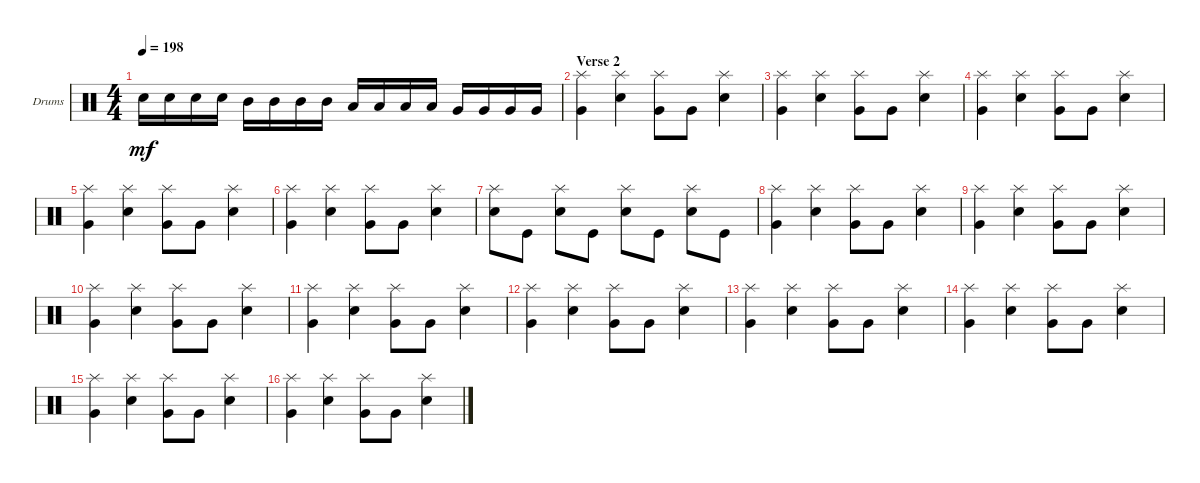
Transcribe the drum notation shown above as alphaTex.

\bracketExtendMode groupsimilarinstruments
\firstSystemTrackNameOrientation horizontal
\otherSystemsTrackNameOrientation horizontal
\track ("Drumkit" "Drums") {instrument percussion}
\staff {score}
\articulation defaults
\ts (4 4)
\tempo 198
\clef neutral
\ks c "Snare (hit) 2".16{dy mf} "Snare (hit) 2".16 "Snare (hit) 2".16 "Snare (hit) 2".16 "Mid Tom (hit)".16 "Mid Tom (hit)".16 "Mid Tom (hit)".16 "Mid Tom (hit)".16 "Low Tom (hit)".16 "Low Tom (hit)".16 "Low Tom (hit)".16 "Low Tom (hit)".16 "Very Low Tom (hit)".16 "Very Low Tom (hit)".16 "Very Low Tom (hit)".16 "Very Low Tom (hit)".16
|
\section ("" "Verse 2")
("Very Low Tom (hit)" "Splash (hit)").4 ("Splash (hit)" "Snare (hit) 2").4 ("Very Low Tom (hit)" "Splash (hit)").8 "Very Low Tom (hit)".8 ("Splash (hit)" "Snare (hit) 2").4 |
("Very Low Tom (hit)" "Splash (hit)").4 ("Splash (hit)" "Snare (hit) 2").4 ("Very Low Tom (hit)" "Splash (hit)").8 "Very Low Tom (hit)".8 ("Splash (hit)" "Snare (hit) 2").4 |
("Very Low Tom (hit)" "Splash (hit)").4 ("Splash (hit)" "Snare (hit) 2").4 ("Very Low Tom (hit)" "Splash (hit)").8 "Very Low Tom (hit)".8 ("Splash (hit)" "Snare (hit) 2").4 |
("Very Low Tom (hit)" "Splash (hit)").4 ("Splash (hit)" "Snare (hit) 2").4 ("Very Low Tom (hit)" "Splash (hit)").8 "Very Low Tom (hit)".8 ("Splash (hit)" "Snare (hit) 2").4 |
("Very Low Tom (hit)" "Splash (hit)").4 ("Splash (hit)" "Snare (hit) 2").4 ("Very Low Tom (hit)" "Splash (hit)").8 "Very Low Tom (hit)".8 ("Splash (hit)" "Snare (hit) 2").4 |
("Snare (hit) 2" "Splash (hit)").8 "Kick (hit)".8 ("Snare (hit) 2" "Splash (hit)").8 "Kick (hit)".8 ("Snare (hit) 2" "Splash (hit)").8 "Kick (hit)".8 ("Snare (hit) 2" "Splash (hit)").8 "Kick (hit)".8 |
("Very Low Tom (hit)" "Splash (hit)").4 ("Splash (hit)" "Snare (hit) 2").4 ("Very Low Tom (hit)" "Splash (hit)").8 "Very Low Tom (hit)".8 ("Splash (hit)" "Snare (hit) 2").4 |
("Very Low Tom (hit)" "Splash (hit)").4 ("Splash (hit)" "Snare (hit) 2").4 ("Very Low Tom (hit)" "Splash (hit)").8 "Very Low Tom (hit)".8 ("Splash (hit)" "Snare (hit) 2").4 |
("Very Low Tom (hit)" "Splash (hit)").4 ("Splash (hit)" "Snare (hit) 2").4 ("Very Low Tom (hit)" "Splash (hit)").8 "Very Low Tom (hit)".8 ("Splash (hit)" "Snare (hit) 2").4 |
("Very Low Tom (hit)" "Splash (hit)").4 ("Splash (hit)" "Snare (hit) 2").4 ("Very Low Tom (hit)" "Splash (hit)").8 "Very Low Tom (hit)".8 ("Splash (hit)" "Snare (hit) 2").4 |
("Very Low Tom (hit)" "Splash (hit)").4 ("Splash (hit)" "Snare (hit) 2").4 ("Very Low Tom (hit)" "Splash (hit)").8 "Very Low Tom (hit)".8 ("Splash (hit)" "Snare (hit) 2").4 |
("Very Low Tom (hit)" "Splash (hit)").4 ("Splash (hit)" "Snare (hit) 2").4 ("Very Low Tom (hit)" "Splash (hit)").8 "Very Low Tom (hit)".8 ("Splash (hit)" "Snare (hit) 2").4 |
("Very Low Tom (hit)" "Splash (hit)").4 ("Splash (hit)" "Snare (hit) 2").4 ("Very Low Tom (hit)" "Splash (hit)").8 "Very Low Tom (hit)".8 ("Splash (hit)" "Snare (hit) 2").4 |
("Very Low Tom (hit)" "Splash (hit)").4 ("Splash (hit)" "Snare (hit) 2").4 ("Very Low Tom (hit)" "Splash (hit)").8 "Very Low Tom (hit)".8 ("Splash (hit)" "Snare (hit) 2").4 |
("Very Low Tom (hit)" "Splash (hit)").4 ("Splash (hit)" "Snare (hit) 2").4 ("Very Low Tom (hit)" "Splash (hit)").8 "Very Low Tom (hit)".8 ("Splash (hit)" "Snare (hit) 2").4
